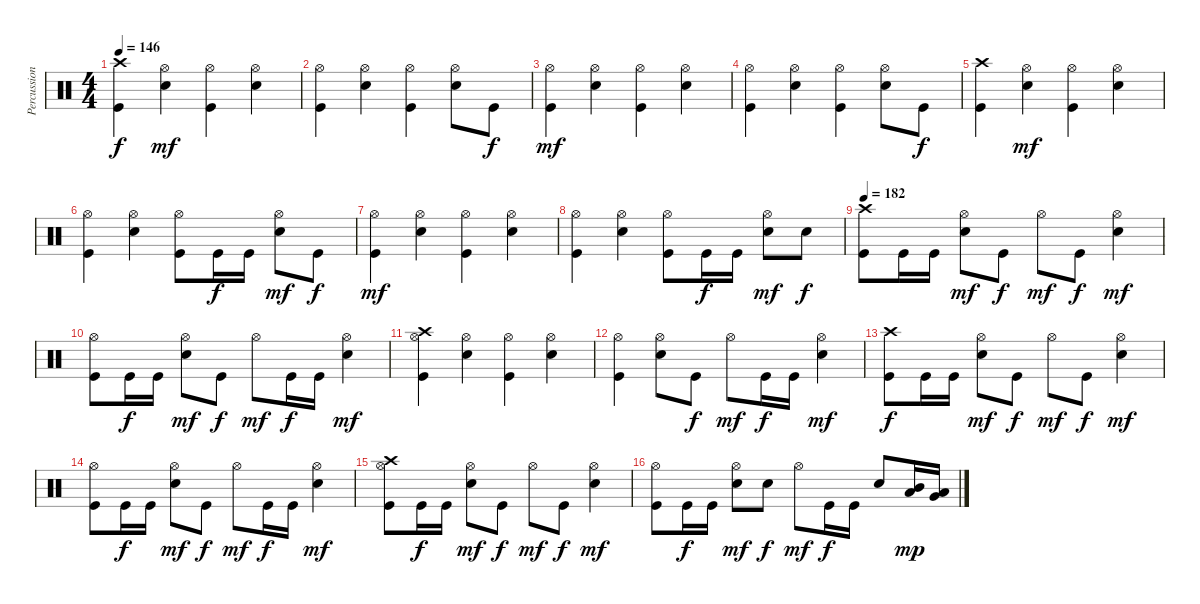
\track ("Percussions" "Percussion") {instrument percussion}
\staff {score}
\articulation defaults
\ts (4 4)
\tempo 146
\clef neutral
\ks c
("Kick (hit)" "Crash high (hit)").4{dy f} ("Electric Snare (hit)" "Hi-Hat (open)").4{dy mf} ("Kick (hit)" "Hi-Hat (open)").4 ("Electric Snare (hit)" "Hi-Hat (open)").4 |
("Kick (hit)" "Hi-Hat (open)").4 ("Electric Snare (hit)" "Hi-Hat (open)").4 ("Kick (hit)" "Hi-Hat (open)").4 ("Electric Snare (hit)" "Hi-Hat (open)").8 "Kick (hit)".8{dy f} |
("Kick (hit)" "Hi-Hat (open)").4{dy mf} ("Electric Snare (hit)" "Hi-Hat (open)").4 ("Kick (hit)" "Hi-Hat (open)").4 ("Electric Snare (hit)" "Hi-Hat (open)").4 |
("Kick (hit)" "Hi-Hat (open)").4 ("Electric Snare (hit)" "Hi-Hat (open)").4 ("Kick (hit)" "Hi-Hat (open)").4 ("Electric Snare (hit)" "Hi-Hat (open)").8 "Kick (hit)".8{dy f} |
("Kick (hit)" "Crash high (hit)").4 ("Electric Snare (hit)" "Hi-Hat (open)").4{dy mf} ("Kick (hit)" "Hi-Hat (open)").4 ("Electric Snare (hit)" "Hi-Hat (open)").4 |
("Kick (hit)" "Hi-Hat (open)").4 ("Electric Snare (hit)" "Hi-Hat (open)").4 ("Kick (hit)" "Hi-Hat (open)").8 "Kick (hit)".16{dy f} "Kick (hit)".16 ("Electric Snare (hit)" "Hi-Hat (open)").8{dy mf} "Kick (hit)".8{dy f} |
("Kick (hit)" "Hi-Hat (open)").4{dy mf} ("Electric Snare (hit)" "Hi-Hat (open)").4 ("Kick (hit)" "Hi-Hat (open)").4 ("Electric Snare (hit)" "Hi-Hat (open)").4 |
("Kick (hit)" "Hi-Hat (open)").4 ("Electric Snare (hit)" "Hi-Hat (open)").4 ("Kick (hit)" "Hi-Hat (open)").8 "Kick (hit)".16{dy f} "Kick (hit)".16 ("Electric Snare (hit)" "Hi-Hat (open)").8{dy mf} "Electric Snare (hit)".8{dy f} |
\tempo 182
("Kick (hit)" "Crash high (hit)").8 "Kick (hit)".16 "Kick (hit)".16 ("Electric Snare (hit)" "Hi-Hat (open)").8{dy mf} "Kick (hit)".8{dy f} "Hi-Hat (open)".8{dy mf} "Kick (hit)".8{dy f} ("Electric Snare (hit)" "Hi-Hat (open)").4{dy mf} |
("Kick (hit)" "Hi-Hat (open)").8 "Kick (hit)".16{dy f} "Kick (hit)".16 ("Electric Snare (hit)" "Hi-Hat (open)").8{dy mf} "Kick (hit)".8{dy f} "Hi-Hat (open)".8{dy mf} "Kick (hit)".16{dy f} "Kick (hit)".16 ("Electric Snare (hit)" "Hi-Hat (open)").4{dy mf} |
("Kick (hit)" "Hi-Hat (open)" "Crash high (hit)").4 ("Electric Snare (hit)" "Hi-Hat (open)").4 ("Kick (hit)" "Hi-Hat (open)").4 ("Electric Snare (hit)" "Hi-Hat (open)").4 |
("Kick (hit)" "Hi-Hat (open)").4 ("Electric Snare (hit)" "Hi-Hat (open)").8 "Kick (hit)".8{dy f} "Hi-Hat (open)".8{dy mf} "Kick (hit)".16{dy f} "Kick (hit)".16 ("Electric Snare (hit)" "Hi-Hat (open)").4{dy mf} |
("Kick (hit)" "Crash high (hit)").8{dy f} "Kick (hit)".16 "Kick (hit)".16 ("Electric Snare (hit)" "Hi-Hat (open)").8{dy mf} "Kick (hit)".8{dy f} "Hi-Hat (open)".8{dy mf} "Kick (hit)".8{dy f} ("Electric Snare (hit)" "Hi-Hat (open)").4{dy mf} |
("Kick (hit)" "Hi-Hat (open)").8 "Kick (hit)".16{dy f} "Kick (hit)".16 ("Electric Snare (hit)" "Hi-Hat (open)").8{dy mf} "Kick (hit)".8{dy f} "Hi-Hat (open)".8{dy mf} "Kick (hit)".16{dy f} "Kick (hit)".16 ("Electric Snare (hit)" "Hi-Hat (open)").4{dy mf} |
("Kick (hit)" "Hi-Hat (open)" "Crash high (hit)").8 "Kick (hit)".16{dy f} "Kick (hit)".16 ("Electric Snare (hit)" "Hi-Hat (open)").8{dy mf} "Kick (hit)".8{dy f} "Hi-Hat (open)".8{dy mf} "Kick (hit)".8{dy f} ("Electric Snare (hit)" "Hi-Hat (open)").4{dy mf} |
("Kick (hit)" "Hi-Hat (open)").8 "Kick (hit)".16{dy f} "Kick (hit)".16 ("Electric Snare (hit)" "Hi-Hat (open)").8{dy mf} "Electric Snare (hit)".8{dy f} "Hi-Hat (open)".8{dy mf} "Kick (hit)".16{dy f} "Kick (hit)".16 "Electric Snare (hit)".8 ("Low Tom (hit)" "Mid Tom (hit)").16{dy mp} ("Very Low Tom (hit)" "Low Tom (hit)").16
